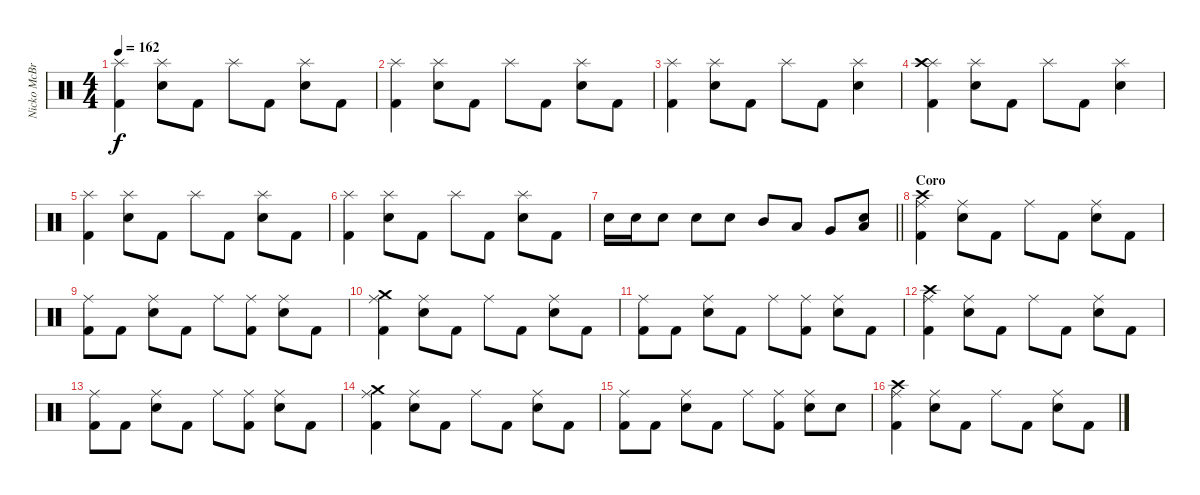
\track ("Nicko McBrain" "Nicko McBr") {instrument percussion}
\staff {score}
\articulation defaults
\ts (4 4)
\tempo 162
\clef neutral
\ks c
("Kick (hit) 2" "Splash (hit)").4{dy f} ("Electric Snare (hit)" "Splash (hit)").8 "Kick (hit) 2".8 "Splash (hit)".8 "Kick (hit) 2".8 ("Electric Snare (hit)" "Splash (hit)").8 "Kick (hit) 2".8 |
("Kick (hit) 2" "Splash (hit)").4 ("Electric Snare (hit)" "Splash (hit)").8 "Kick (hit) 2".8 "Splash (hit)".8 "Kick (hit) 2".8 ("Electric Snare (hit)" "Splash (hit)").8 "Kick (hit) 2".8 |
("Kick (hit) 2" "Splash (hit)").4 ("Electric Snare (hit)" "Splash (hit)").8 "Kick (hit) 2".8 "Splash (hit)".8 "Kick (hit) 2".8 ("Electric Snare (hit)" "Splash (hit)").4 |
("Kick (hit) 2" "Splash (hit)" "Crash high (hit)").4 ("Electric Snare (hit)" "Splash (hit)").8 "Kick (hit) 2".8 "Splash (hit)".8 "Kick (hit) 2".8 ("Electric Snare (hit)" "Splash (hit)").4 |
("Kick (hit) 2" "Splash (hit)").4 ("Electric Snare (hit)" "Splash (hit)").8 "Kick (hit) 2".8 "Splash (hit)".8 "Kick (hit) 2".8 ("Electric Snare (hit)" "Splash (hit)").8 "Kick (hit) 2".8 |
("Kick (hit) 2" "Splash (hit)").4 ("Electric Snare (hit)" "Splash (hit)").8 "Kick (hit) 2".8 "Splash (hit)".8 "Kick (hit) 2".8 ("Electric Snare (hit)" "Splash (hit)").8 "Kick (hit) 2".8 |
\barLineRight lightlight "Electric Snare (hit)".16 "Electric Snare (hit)".16 "Electric Snare (hit)".8 "Electric Snare (hit)".8 "Electric Snare (hit)".8 "Mid Tom (hit)".8 "Low Tom (hit)".8 "Very Low Tom (hit)".8
("Low Floor Tom (hit)" "Electric Snare (hit)").8 |
\section ("" "Coro")
("Kick (hit) 2" "Ride (middle)" "Crash high (hit)").4 ("Electric Snare (hit)" "Ride (middle)").8 "Kick (hit) 2".8 "Ride (middle)".8 "Kick (hit) 2".8 ("Electric Snare (hit)" "Ride (middle)").8 "Kick (hit) 2".8 |
("Kick (hit) 2" "Ride (middle)").8 "Kick (hit) 2".8 ("Electric Snare (hit)" "Ride (middle)").8 "Kick (hit) 2".8 "Ride (middle)".8 ("Kick (hit) 2" "Ride (middle)").8 ("Electric Snare (hit)" "Ride (middle)").8 "Kick (hit) 2".8 |
("Kick (hit) 2" "Ride (middle)" "Crash medium (hit)").4 ("Electric Snare (hit)" "Ride (middle)").8 "Kick (hit) 2".8 "Ride (middle)".8 "Kick (hit) 2".8 ("Electric Snare (hit)" "Ride (middle)").8 "Kick (hit) 2".8 |
("Kick (hit) 2" "Ride (middle)").8 "Kick (hit) 2".8 ("Electric Snare (hit)" "Ride (middle)").8 "Kick (hit) 2".8 "Ride (middle)".8 ("Kick (hit) 2" "Ride (middle)").8 ("Electric Snare (hit)" "Ride (middle)").8 "Kick (hit) 2".8 |
("Kick (hit) 2" "Ride (middle)" "Crash high (hit)").4 ("Electric Snare (hit)" "Ride (middle)").8 "Kick (hit) 2".8 "Ride (middle)".8 "Kick (hit) 2".8 ("Electric Snare (hit)" "Ride (middle)").8 "Kick (hit) 2".8 |
("Kick (hit) 2" "Ride (middle)").8 "Kick (hit) 2".8 ("Electric Snare (hit)" "Ride (middle)").8 "Kick (hit) 2".8 "Ride (middle)".8 ("Kick (hit) 2" "Ride (middle)").8 ("Electric Snare (hit)" "Ride (middle)").8 "Kick (hit) 2".8 |
("Kick (hit) 2" "Ride (middle)" "Crash medium (hit)").4 ("Electric Snare (hit)" "Ride (middle)").8 "Kick (hit) 2".8 "Ride (middle)".8 "Kick (hit) 2".8 ("Electric Snare (hit)" "Ride (middle)").8 "Kick (hit) 2".8 |
("Kick (hit) 2" "Ride (middle)").8 "Kick (hit) 2".8 ("Electric Snare (hit)" "Ride (middle)").8 "Kick (hit) 2".8 "Ride (middle)".8 ("Kick (hit) 2" "Ride (middle)").8 ("Electric Snare (hit)" "Ride (middle)").8 "Electric Snare (hit)".8 |
("Kick (hit) 2" "Ride (middle)" "Crash high (hit)").4 ("Electric Snare (hit)" "Ride (middle)").8 "Kick (hit) 2".8 "Ride (middle)".8 "Kick (hit) 2".8 ("Electric Snare (hit)" "Ride (middle)").8 "Kick (hit) 2".8
